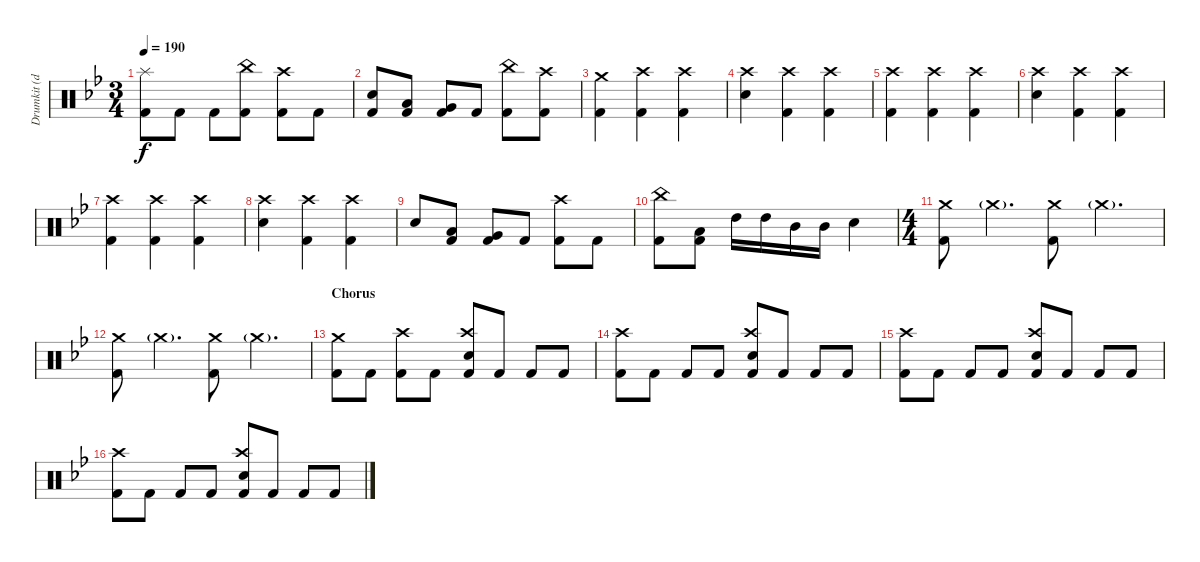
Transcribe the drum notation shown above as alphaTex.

\track ("Drumkit (don't unmute)" "Drumkit (d") {instrument percussion}
\staff {score}
\articulation defaults
\ts (3 4)
\tempo 190
\clef neutral
\ks bb
("Kick (hit) 2" "Splash (hit)").8{dy f} "Kick (hit) 2".8 "Kick (hit) 2".8 ("Kick (hit) 2" "China (hit)").8 ("Kick (hit) 2" "Crash high (hit)").8 "Kick (hit) 2".8 |
("Kick (hit) 2" "Snare (hit) 2").8 ("Kick (hit) 2" "Low Tom (hit)").8 ("Kick (hit) 2" "Very Low Tom (hit)").8 "Kick (hit) 2".8 ("Kick (hit) 2" "China (hit)").8 ("Kick (hit) 2" "Crash high (hit)").8 |
("Kick (hit) 2" "Crash medium (hit)").4 ("Kick (hit) 2" "Crash high (hit)").4 ("Kick (hit) 2" "Crash high (hit)").4 |
("Snare (hit) 2" "Crash high (hit)").4 ("Kick (hit) 2" "Crash high (hit)").4 ("Kick (hit) 2" "Crash high (hit)").4 |
("Kick (hit) 2" "Crash high (hit)").4 ("Kick (hit) 2" "Crash high (hit)").4 ("Kick (hit) 2" "Crash high (hit)").4 |
("Snare (hit) 2" "Crash high (hit)").4 ("Kick (hit) 2" "Crash high (hit)").4 ("Kick (hit) 2" "Crash high (hit)").4 |
("Kick (hit) 2" "Crash high (hit)").4 ("Kick (hit) 2" "Crash high (hit)").4 ("Kick (hit) 2" "Crash high (hit)").4 |
("Snare (hit) 2" "Crash high (hit)").4 ("Kick (hit) 2" "Crash high (hit)").4 ("Kick (hit) 2" "Crash high (hit)").4 |
"Snare (hit) 2".8 ("Kick (hit) 2" "Low Tom (hit)").8 ("Kick (hit) 2" "Very Low Tom (hit)").8 "Kick (hit) 2".8 ("Kick (hit) 2" "Crash high (hit)").8 "Kick (hit) 2".8 |
("Kick (hit) 2" "China (hit)").8 ("Kick (hit) 2" "Low Tom (hit)").8 "High Tom (hit)".16 "High Tom (hit)".16 "Mid Tom (hit)".16 "Mid Tom (hit)".16 "Snare (hit) 2".4 |
\ts (4 4)
("Kick (hit) 2" "Crash medium (hit)").8 "Crash medium (hit)"{g}.4{d} ("Kick (hit) 2" "Crash medium (hit)").8 "Crash medium (hit)"{g}.4{d} |
("Kick (hit) 2" "Crash medium (hit)").8 "Crash medium (hit)"{g}.4{d} ("Kick (hit) 2" "Crash medium (hit)").8 "Crash medium (hit)"{g}.4{d} |
\section ("" "Chorus")
("Kick (hit) 2" "Crash medium (hit)").8 "Kick (hit) 2".8 ("Kick (hit) 2" "Crash high (hit)").8 "Kick (hit) 2".8 ("Kick (hit) 2" "Crash high (hit)" "Snare (hit) 2").8 "Kick (hit) 2".8 "Kick (hit) 2".8 "Kick (hit) 2".8 |
("Kick (hit) 2" "Crash high (hit)").8 "Kick (hit) 2".8 "Kick (hit) 2".8 "Kick (hit) 2".8 ("Kick (hit) 2" "Crash high (hit)" "Snare (hit) 2").8 "Kick (hit) 2".8 "Kick (hit) 2".8 "Kick (hit) 2".8 |
("Kick (hit) 2" "Crash high (hit)").8 "Kick (hit) 2".8 "Kick (hit) 2".8 "Kick (hit) 2".8 ("Kick (hit) 2" "Crash high (hit)" "Snare (hit) 2").8 "Kick (hit) 2".8 "Kick (hit) 2".8 "Kick (hit) 2".8 |
("Kick (hit) 2" "Crash high (hit)").8 "Kick (hit) 2".8 "Kick (hit) 2".8 "Kick (hit) 2".8 ("Kick (hit) 2" "Crash high (hit)" "Snare (hit) 2").8 "Kick (hit) 2".8 "Kick (hit) 2".8 "Kick (hit) 2".8
